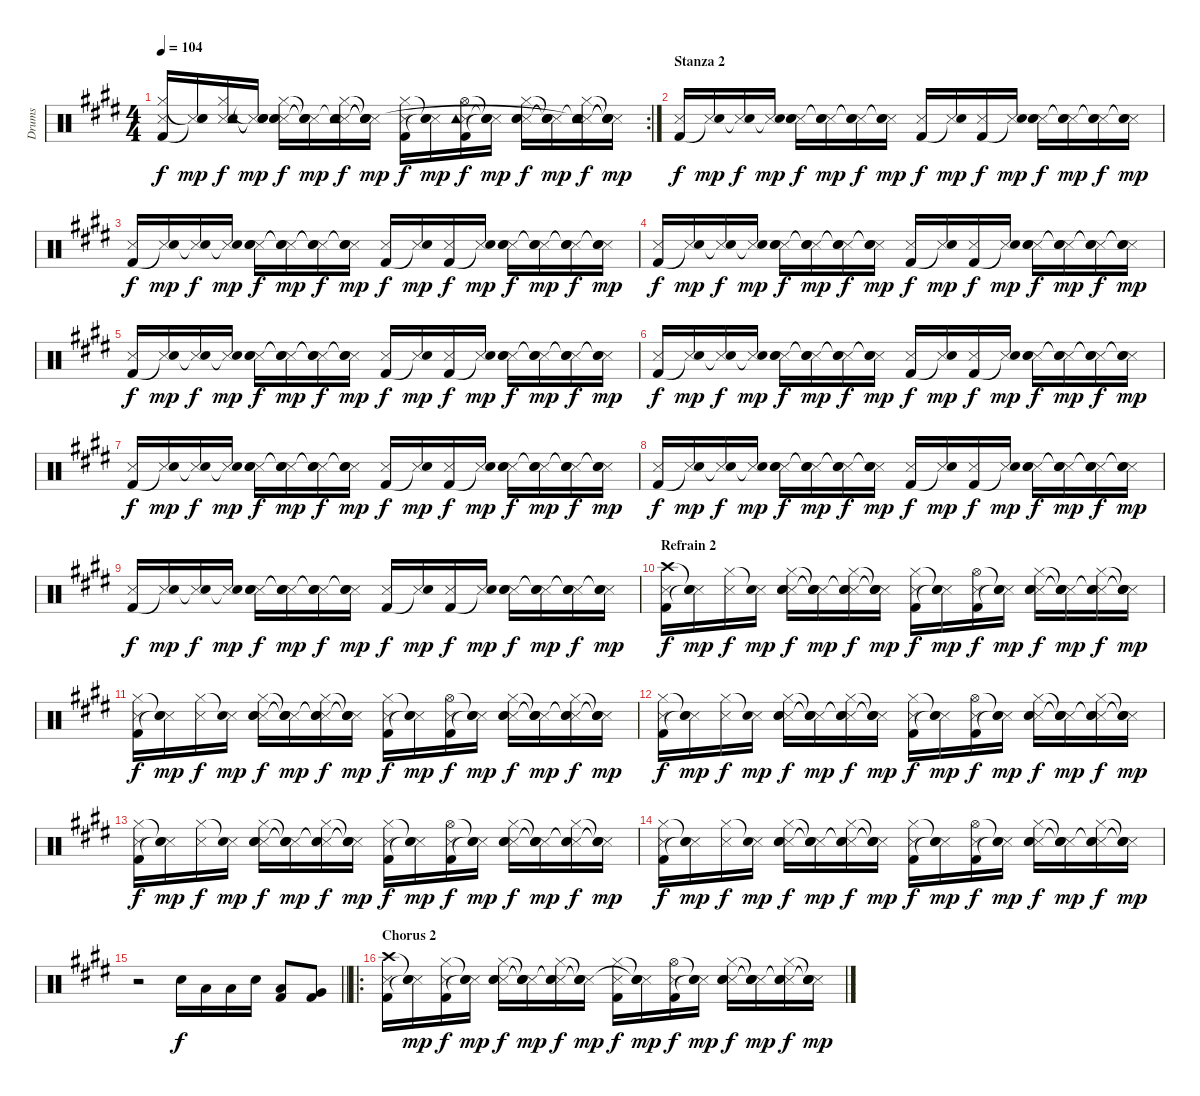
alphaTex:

\track ("Drums" "Drums") {instrument percussion}
\staff {score}
\articulation defaults
\rc 2
\ts (4 4)
\tempo 104
\clef neutral
\ks e
("Metronome (hit)" "Hi-Hat (closed)" "Kick (hit) 2").16{dy f} ("Metronome (hit)" "Snare (hit)"{t} "Snare (hit)"{t}).16{dy mp} ("Metronome (hit)" "Hi-Hat (closed)" "Tambourine (hit)" "Snare (hit)"{t}).16{dy f} ("Metronome (hit)" "Snare (hit)"{t} "Snare (hit)"{t} "Snare (hit)"{t}).16{dy mp} ("Metronome (hit)" "Hi-Hat (closed)" "Hand Clap (hit)" "Electric Snare (hit)").16{dy f} ("Metronome (hit)" "Snare (hit)"{t} "Snare (hit)"{t} "Snare (hit)"{t}).16{dy mp} ("Metronome (hit)" "Hi-Hat (closed)" "Tambourine (hit)" "Snare (hit)"{t} "Snare (hit)"{t}).16{dy f} ("Metronome (hit)" "Snare (hit)"{t} "Snare (hit)"{t} "Snare (hit)"{t} "Snare (hit)"{t}).16{dy mp} ("Metronome (hit)" "Hi-Hat (closed)" "Kick (hit) 2").16{dy f} ("Metronome (hit)" "Snare (hit)"{t} "Snare (hit)"{t}).16{dy mp} ("Metronome (hit)" "Hi-Hat (open)" "Tambourine (hit)" "Kick (hit) 2").16{dy f} ("Metronome (hit)" "Snare (hit)"{t} "Snare (hit)"{t} "Snare (hit)"{t}).16{dy mp} ("Metronome (hit)" "Hi-Hat (closed)" "Hand Clap (hit)" "Electric Snare (hit)").16{dy f} ("Metronome (hit)" "Snare (hit)"{t} "Snare (hit)"{t} "Snare (hit)"{t}).16{dy mp} ("Metronome (hit)" "Hi-Hat (closed)" "Tambourine (hit)" "Snare (hit)"{t} "Snare (hit)"{t}).16{dy f} ("Metronome (hit)" "Snare (hit)"{t} "Snare (hit)"{t} "Snare (hit)"{t} "Snare (hit)"{t}).16{dy mp} |
\section ("" "Stanza 2")
("Metronome (hit)" "Kick (hit) 2").16{dy f} ("Metronome (hit)" "Snare (hit)"{t}).16{dy mp} ("Metronome (hit)" "Snare (hit)"{t}).16{dy f} ("Metronome (hit)" "Snare (hit)"{t}).16{dy mp} ("Metronome (hit)" "Hand Clap (hit)" "Electric Snare (hit)").16{dy f} ("Metronome (hit)" "Snare (hit)"{t} "Snare (hit)"{t}).16{dy mp} ("Metronome (hit)" "Snare (hit)"{t} "Snare (hit)"{t}).16{dy f} ("Metronome (hit)" "Snare (hit)"{t} "Snare (hit)"{t}).16{dy mp} ("Metronome (hit)" "Kick (hit) 2").16{dy f} ("Metronome (hit)" "Snare (hit)"{t}).16{dy mp} ("Metronome (hit)" "Kick (hit) 2").16{dy f} ("Metronome (hit)" "Snare (hit)"{t}).16{dy mp} ("Metronome (hit)" "Hand Clap (hit)" "Electric Snare (hit)").16{dy f} ("Metronome (hit)" "Snare (hit)"{t} "Snare (hit)"{t}).16{dy mp} ("Metronome (hit)" "Snare (hit)"{t} "Snare (hit)"{t}).16{dy f} ("Metronome (hit)" "Snare (hit)"{t} "Snare (hit)"{t}).16{dy mp} |
("Metronome (hit)" "Kick (hit) 2").16{dy f} ("Metronome (hit)" "Snare (hit)"{t}).16{dy mp} ("Metronome (hit)" "Snare (hit)"{t}).16{dy f} ("Metronome (hit)" "Snare (hit)"{t}).16{dy mp} ("Metronome (hit)" "Hand Clap (hit)" "Electric Snare (hit)").16{dy f} ("Metronome (hit)" "Snare (hit)"{t} "Snare (hit)"{t}).16{dy mp} ("Metronome (hit)" "Snare (hit)"{t} "Snare (hit)"{t}).16{dy f} ("Metronome (hit)" "Snare (hit)"{t} "Snare (hit)"{t}).16{dy mp} ("Metronome (hit)" "Kick (hit) 2").16{dy f} ("Metronome (hit)" "Snare (hit)"{t}).16{dy mp} ("Metronome (hit)" "Kick (hit) 2").16{dy f} ("Metronome (hit)" "Snare (hit)"{t}).16{dy mp} ("Metronome (hit)" "Hand Clap (hit)" "Electric Snare (hit)").16{dy f} ("Metronome (hit)" "Snare (hit)"{t} "Snare (hit)"{t}).16{dy mp} ("Metronome (hit)" "Snare (hit)"{t} "Snare (hit)"{t}).16{dy f} ("Metronome (hit)" "Snare (hit)"{t} "Snare (hit)"{t}).16{dy mp} |
("Metronome (hit)" "Kick (hit) 2").16{dy f} ("Metronome (hit)" "Snare (hit)"{t}).16{dy mp} ("Metronome (hit)" "Snare (hit)"{t}).16{dy f} ("Metronome (hit)" "Snare (hit)"{t}).16{dy mp} ("Metronome (hit)" "Hand Clap (hit)" "Electric Snare (hit)").16{dy f} ("Metronome (hit)" "Snare (hit)"{t} "Snare (hit)"{t}).16{dy mp} ("Metronome (hit)" "Snare (hit)"{t} "Snare (hit)"{t}).16{dy f} ("Metronome (hit)" "Snare (hit)"{t} "Snare (hit)"{t}).16{dy mp} ("Metronome (hit)" "Kick (hit) 2").16{dy f} ("Metronome (hit)" "Snare (hit)"{t}).16{dy mp} ("Metronome (hit)" "Kick (hit) 2").16{dy f} ("Metronome (hit)" "Snare (hit)"{t}).16{dy mp} ("Metronome (hit)" "Hand Clap (hit)" "Electric Snare (hit)").16{dy f} ("Metronome (hit)" "Snare (hit)"{t} "Snare (hit)"{t}).16{dy mp} ("Metronome (hit)" "Snare (hit)"{t} "Snare (hit)"{t}).16{dy f} ("Metronome (hit)" "Snare (hit)"{t} "Snare (hit)"{t}).16{dy mp} |
("Metronome (hit)" "Kick (hit) 2").16{dy f} ("Metronome (hit)" "Snare (hit)"{t}).16{dy mp} ("Metronome (hit)" "Snare (hit)"{t}).16{dy f} ("Metronome (hit)" "Snare (hit)"{t}).16{dy mp} ("Metronome (hit)" "Hand Clap (hit)" "Electric Snare (hit)").16{dy f} ("Metronome (hit)" "Snare (hit)"{t} "Snare (hit)"{t}).16{dy mp} ("Metronome (hit)" "Snare (hit)"{t} "Snare (hit)"{t}).16{dy f} ("Metronome (hit)" "Snare (hit)"{t} "Snare (hit)"{t}).16{dy mp} ("Metronome (hit)" "Kick (hit) 2").16{dy f} ("Metronome (hit)" "Snare (hit)"{t}).16{dy mp} ("Metronome (hit)" "Kick (hit) 2").16{dy f} ("Metronome (hit)" "Snare (hit)"{t}).16{dy mp} ("Metronome (hit)" "Hand Clap (hit)" "Electric Snare (hit)").16{dy f} ("Metronome (hit)" "Snare (hit)"{t} "Snare (hit)"{t}).16{dy mp} ("Metronome (hit)" "Snare (hit)"{t} "Snare (hit)"{t}).16{dy f} ("Metronome (hit)" "Snare (hit)"{t} "Snare (hit)"{t}).16{dy mp} |
("Metronome (hit)" "Kick (hit) 2").16{dy f} ("Metronome (hit)" "Snare (hit)"{t}).16{dy mp} ("Metronome (hit)" "Snare (hit)"{t}).16{dy f} ("Metronome (hit)" "Snare (hit)"{t}).16{dy mp} ("Metronome (hit)" "Hand Clap (hit)" "Electric Snare (hit)").16{dy f} ("Metronome (hit)" "Snare (hit)"{t} "Snare (hit)"{t}).16{dy mp} ("Metronome (hit)" "Snare (hit)"{t} "Snare (hit)"{t}).16{dy f} ("Metronome (hit)" "Snare (hit)"{t} "Snare (hit)"{t}).16{dy mp} ("Metronome (hit)" "Kick (hit) 2").16{dy f} ("Metronome (hit)" "Snare (hit)"{t}).16{dy mp} ("Metronome (hit)" "Kick (hit) 2").16{dy f} ("Metronome (hit)" "Snare (hit)"{t}).16{dy mp} ("Metronome (hit)" "Hand Clap (hit)" "Electric Snare (hit)").16{dy f} ("Metronome (hit)" "Snare (hit)"{t} "Snare (hit)"{t}).16{dy mp} ("Metronome (hit)" "Snare (hit)"{t} "Snare (hit)"{t}).16{dy f} ("Metronome (hit)" "Snare (hit)"{t} "Snare (hit)"{t}).16{dy mp} |
("Metronome (hit)" "Kick (hit) 2").16{dy f} ("Metronome (hit)" "Snare (hit)"{t}).16{dy mp} ("Metronome (hit)" "Snare (hit)"{t}).16{dy f} ("Metronome (hit)" "Snare (hit)"{t}).16{dy mp} ("Metronome (hit)" "Hand Clap (hit)" "Electric Snare (hit)").16{dy f} ("Metronome (hit)" "Snare (hit)"{t} "Snare (hit)"{t}).16{dy mp} ("Metronome (hit)" "Snare (hit)"{t} "Snare (hit)"{t}).16{dy f} ("Metronome (hit)" "Snare (hit)"{t} "Snare (hit)"{t}).16{dy mp} ("Metronome (hit)" "Kick (hit) 2").16{dy f} ("Metronome (hit)" "Snare (hit)"{t}).16{dy mp} ("Metronome (hit)" "Kick (hit) 2").16{dy f} ("Metronome (hit)" "Snare (hit)"{t}).16{dy mp} ("Metronome (hit)" "Hand Clap (hit)" "Electric Snare (hit)").16{dy f} ("Metronome (hit)" "Snare (hit)"{t} "Snare (hit)"{t}).16{dy mp} ("Metronome (hit)" "Snare (hit)"{t} "Snare (hit)"{t}).16{dy f} ("Metronome (hit)" "Snare (hit)"{t} "Snare (hit)"{t}).16{dy mp} |
("Metronome (hit)" "Kick (hit) 2").16{dy f} ("Metronome (hit)" "Snare (hit)"{t}).16{dy mp} ("Metronome (hit)" "Snare (hit)"{t}).16{dy f} ("Metronome (hit)" "Snare (hit)"{t}).16{dy mp} ("Metronome (hit)" "Hand Clap (hit)" "Electric Snare (hit)").16{dy f} ("Metronome (hit)" "Snare (hit)"{t} "Snare (hit)"{t}).16{dy mp} ("Metronome (hit)" "Snare (hit)"{t} "Snare (hit)"{t}).16{dy f} ("Metronome (hit)" "Snare (hit)"{t} "Snare (hit)"{t}).16{dy mp} ("Metronome (hit)" "Kick (hit) 2").16{dy f} ("Metronome (hit)" "Snare (hit)"{t}).16{dy mp} ("Metronome (hit)" "Kick (hit) 2").16{dy f} ("Metronome (hit)" "Snare (hit)"{t}).16{dy mp} ("Metronome (hit)" "Hand Clap (hit)" "Electric Snare (hit)").16{dy f} ("Metronome (hit)" "Snare (hit)"{t} "Snare (hit)"{t}).16{dy mp} ("Metronome (hit)" "Snare (hit)"{t} "Snare (hit)"{t}).16{dy f} ("Metronome (hit)" "Snare (hit)"{t} "Snare (hit)"{t}).16{dy mp} |
("Metronome (hit)" "Kick (hit) 2").16{dy f} ("Metronome (hit)" "Snare (hit)"{t}).16{dy mp} ("Metronome (hit)" "Snare (hit)"{t}).16{dy f} ("Metronome (hit)" "Snare (hit)"{t}).16{dy mp} ("Metronome (hit)" "Hand Clap (hit)" "Electric Snare (hit)").16{dy f} ("Metronome (hit)" "Snare (hit)"{t} "Snare (hit)"{t}).16{dy mp} ("Metronome (hit)" "Snare (hit)"{t} "Snare (hit)"{t}).16{dy f} ("Metronome (hit)" "Snare (hit)"{t} "Snare (hit)"{t}).16{dy mp} ("Metronome (hit)" "Kick (hit) 2").16{dy f} ("Metronome (hit)" "Snare (hit)"{t}).16{dy mp} ("Metronome (hit)" "Kick (hit) 2").16{dy f} ("Metronome (hit)" "Snare (hit)"{t}).16{dy mp} ("Metronome (hit)" "Hand Clap (hit)" "Electric Snare (hit)").16{dy f} ("Metronome (hit)" "Snare (hit)"{t} "Snare (hit)"{t}).16{dy mp} ("Metronome (hit)" "Snare (hit)"{t} "Snare (hit)"{t}).16{dy f} ("Metronome (hit)" "Snare (hit)"{t} "Snare (hit)"{t}).16{dy mp} |
\section ("" "Refrain 2")
("Metronome (hit)" "Crash high (hit)" "Kick (hit) 2").16{dy f} ("Metronome (hit)" "Snare (hit)"{t} "Snare (hit)"{t}).16{dy mp} ("Metronome (hit)" "Hi-Hat (closed)").16{dy f} ("Metronome (hit)" "Snare (hit)"{t}).16{dy mp} ("Metronome (hit)" "Hi-Hat (closed)" "Hand Clap (hit)" "Electric Snare (hit)").16{dy f} ("Metronome (hit)" "Snare (hit)"{t} "Snare (hit)"{t} "Snare (hit)"{t}).16{dy mp} ("Metronome (hit)" "Hi-Hat (closed)" "Snare (hit)"{t} "Snare (hit)"{t}).16{dy f} ("Metronome (hit)" "Snare (hit)"{t} "Snare (hit)"{t} "Electric Snare (hit)"{t}).16{dy mp} ("Metronome (hit)" "Hi-Hat (closed)" "Kick (hit) 2").16{dy f} ("Metronome (hit)" "Snare (hit)"{t} "Snare (hit)"{t}).16{dy mp} ("Metronome (hit)" "Hi-Hat (open)" "Kick (hit) 2").16{dy f} ("Metronome (hit)" "Snare (hit)"{t} "Snare (hit)"{t}).16{dy mp} ("Metronome (hit)" "Hi-Hat (closed)" "Hand Clap (hit)" "Electric Snare (hit)").16{dy f} ("Metronome (hit)" "Snare (hit)"{t} "Snare (hit)"{t} "Snare (hit)"{t}).16{dy mp} ("Metronome (hit)" "Hi-Hat (closed)" "Snare (hit)"{t} "Snare (hit)"{t}).16{dy f} ("Metronome (hit)" "Snare (hit)"{t} "Snare (hit)"{t} "Snare (hit)"{t}).16{dy mp} |
("Metronome (hit)" "Hi-Hat (closed)" "Kick (hit) 2").16{dy f} ("Metronome (hit)" "Snare (hit)"{t} "Snare (hit)"{t}).16{dy mp} ("Metronome (hit)" "Hi-Hat (closed)").16{dy f} ("Metronome (hit)" "Snare (hit)"{t}).16{dy mp} ("Metronome (hit)" "Hi-Hat (closed)" "Hand Clap (hit)" "Electric Snare (hit)").16{dy f} ("Metronome (hit)" "Snare (hit)"{t} "Snare (hit)"{t} "Snare (hit)"{t}).16{dy mp} ("Metronome (hit)" "Hi-Hat (closed)" "Snare (hit)"{t} "Snare (hit)"{t}).16{dy f} ("Metronome (hit)" "Snare (hit)"{t} "Snare (hit)"{t} "Electric Snare (hit)"{t}).16{dy mp} ("Metronome (hit)" "Hi-Hat (closed)" "Kick (hit) 2").16{dy f} ("Metronome (hit)" "Snare (hit)"{t} "Snare (hit)"{t}).16{dy mp} ("Metronome (hit)" "Hi-Hat (open)" "Kick (hit) 2").16{dy f} ("Metronome (hit)" "Snare (hit)"{t} "Snare (hit)"{t}).16{dy mp} ("Metronome (hit)" "Hi-Hat (closed)" "Hand Clap (hit)" "Electric Snare (hit)").16{dy f} ("Metronome (hit)" "Snare (hit)"{t} "Snare (hit)"{t} "Snare (hit)"{t}).16{dy mp} ("Metronome (hit)" "Hi-Hat (closed)" "Snare (hit)"{t} "Snare (hit)"{t}).16{dy f} ("Metronome (hit)" "Snare (hit)"{t} "Snare (hit)"{t} "Snare (hit)"{t}).16{dy mp} |
("Metronome (hit)" "Hi-Hat (closed)" "Kick (hit) 2").16{dy f} ("Metronome (hit)" "Snare (hit)"{t} "Snare (hit)"{t}).16{dy mp} ("Metronome (hit)" "Hi-Hat (closed)").16{dy f} ("Metronome (hit)" "Snare (hit)"{t}).16{dy mp} ("Metronome (hit)" "Hi-Hat (closed)" "Hand Clap (hit)" "Electric Snare (hit)").16{dy f} ("Metronome (hit)" "Snare (hit)"{t} "Snare (hit)"{t} "Snare (hit)"{t}).16{dy mp} ("Metronome (hit)" "Hi-Hat (closed)" "Snare (hit)"{t} "Snare (hit)"{t}).16{dy f} ("Metronome (hit)" "Snare (hit)"{t} "Snare (hit)"{t} "Electric Snare (hit)"{t}).16{dy mp} ("Metronome (hit)" "Hi-Hat (closed)" "Kick (hit) 2").16{dy f} ("Metronome (hit)" "Snare (hit)"{t} "Snare (hit)"{t}).16{dy mp} ("Metronome (hit)" "Hi-Hat (open)" "Kick (hit) 2").16{dy f} ("Metronome (hit)" "Snare (hit)"{t} "Snare (hit)"{t}).16{dy mp} ("Metronome (hit)" "Hi-Hat (closed)" "Hand Clap (hit)" "Electric Snare (hit)").16{dy f} ("Metronome (hit)" "Snare (hit)"{t} "Snare (hit)"{t} "Snare (hit)"{t}).16{dy mp} ("Metronome (hit)" "Hi-Hat (closed)" "Snare (hit)"{t} "Snare (hit)"{t}).16{dy f} ("Metronome (hit)" "Snare (hit)"{t} "Snare (hit)"{t} "Snare (hit)"{t}).16{dy mp} |
("Metronome (hit)" "Hi-Hat (closed)" "Kick (hit) 2").16{dy f} ("Metronome (hit)" "Snare (hit)"{t} "Snare (hit)"{t}).16{dy mp} ("Metronome (hit)" "Hi-Hat (closed)").16{dy f} ("Metronome (hit)" "Snare (hit)"{t}).16{dy mp} ("Metronome (hit)" "Hi-Hat (closed)" "Hand Clap (hit)" "Electric Snare (hit)").16{dy f} ("Metronome (hit)" "Snare (hit)"{t} "Snare (hit)"{t} "Snare (hit)"{t}).16{dy mp} ("Metronome (hit)" "Hi-Hat (closed)" "Snare (hit)"{t} "Snare (hit)"{t}).16{dy f} ("Metronome (hit)" "Snare (hit)"{t} "Snare (hit)"{t} "Electric Snare (hit)"{t}).16{dy mp} ("Metronome (hit)" "Hi-Hat (closed)" "Kick (hit) 2").16{dy f} ("Metronome (hit)" "Snare (hit)"{t} "Snare (hit)"{t}).16{dy mp} ("Metronome (hit)" "Hi-Hat (open)" "Kick (hit) 2").16{dy f} ("Metronome (hit)" "Snare (hit)"{t} "Snare (hit)"{t}).16{dy mp} ("Metronome (hit)" "Hi-Hat (closed)" "Hand Clap (hit)" "Electric Snare (hit)").16{dy f} ("Metronome (hit)" "Snare (hit)"{t} "Snare (hit)"{t} "Snare (hit)"{t}).16{dy mp} ("Metronome (hit)" "Hi-Hat (closed)" "Snare (hit)"{t} "Snare (hit)"{t}).16{dy f} ("Metronome (hit)" "Snare (hit)"{t} "Snare (hit)"{t} "Snare (hit)"{t}).16{dy mp} |
("Metronome (hit)" "Hi-Hat (closed)" "Kick (hit) 2").16{dy f} ("Metronome (hit)" "Snare (hit)"{t} "Snare (hit)"{t}).16{dy mp} ("Metronome (hit)" "Hi-Hat (closed)").16{dy f} ("Metronome (hit)" "Snare (hit)"{t}).16{dy mp} ("Metronome (hit)" "Hi-Hat (closed)" "Hand Clap (hit)" "Electric Snare (hit)").16{dy f} ("Metronome (hit)" "Snare (hit)"{t} "Snare (hit)"{t} "Snare (hit)"{t}).16{dy mp} ("Metronome (hit)" "Hi-Hat (closed)" "Snare (hit)"{t} "Snare (hit)"{t}).16{dy f} ("Metronome (hit)" "Snare (hit)"{t} "Snare (hit)"{t} "Electric Snare (hit)"{t}).16{dy mp} ("Metronome (hit)" "Hi-Hat (closed)" "Kick (hit) 2").16{dy f} ("Metronome (hit)" "Snare (hit)"{t} "Snare (hit)"{t}).16{dy mp} ("Metronome (hit)" "Hi-Hat (open)" "Kick (hit) 2").16{dy f} ("Metronome (hit)" "Snare (hit)"{t} "Snare (hit)"{t}).16{dy mp} ("Metronome (hit)" "Hi-Hat (closed)" "Hand Clap (hit)" "Electric Snare (hit)").16{dy f} ("Metronome (hit)" "Snare (hit)"{t} "Snare (hit)"{t} "Snare (hit)"{t}).16{dy mp} ("Metronome (hit)" "Hi-Hat (closed)" "Snare (hit)"{t} "Snare (hit)"{t}).16{dy f} ("Metronome (hit)" "Snare (hit)"{t} "Snare (hit)"{t} "Snare (hit)"{t}).16{dy mp} |
\barLineRight lightlight
r.2 "Electric Snare (hit)".16{dy f} "Low Tom (hit)".16 "Low Tom (hit)".16 "Electric Snare (hit)".16 ("Low Tom (hit)" "Kick (hit) 2").8 ("Very Low Tom (hit)" "Kick (hit) 2").8 |
\ro
\section ("" "Chorus 2")
("Metronome (hit)" "Crash high (hit)" "Kick (hit) 2").16 ("Metronome (hit)" "Snare (hit)"{t} "Snare (hit)"{t}).16{dy mp} ("Metronome (hit)" "Hi-Hat (closed)" "Kick (hit) 2").16{dy f} ("Metronome (hit)" "Snare (hit)"{t} "Snare (hit)"{t}).16{dy mp} ("Metronome (hit)" "Hi-Hat (closed)" "Hand Clap (hit)" "Electric Snare (hit)").16{dy f} ("Metronome (hit)" "Snare (hit)"{t} "Snare (hit)"{t} "Snare (hit)"{t}).16{dy mp} ("Metronome (hit)" "Hi-Hat (closed)" "Snare (hit)"{t} "Snare (hit)"{t}).16{dy f} ("Metronome (hit)" "Snare (hit)"{t} "Snare (hit)"{t} "Electric Snare (hit)"{t}).16{dy mp} ("Metronome (hit)" "Hi-Hat (closed)" "Kick (hit) 2").16{dy f} ("Metronome (hit)" "Snare (hit)"{t} "Electric Snare (hit)" "Snare (hit)"{t}).16{dy mp} ("Metronome (hit)" "Hi-Hat (open)" "Kick (hit) 2").16{dy f} ("Metronome (hit)" "Snare (hit)"{t} "Snare (hit)"{t}).16{dy mp} ("Metronome (hit)" "Hi-Hat (closed)" "Hand Clap (hit)" "Electric Snare (hit)").16{dy f} ("Metronome (hit)" "Snare (hit)"{t} "Snare (hit)"{t} "Snare (hit)"{t}).16{dy mp} ("Metronome (hit)" "Hi-Hat (closed)" "Snare (hit)"{t} "Snare (hit)"{t}).16{dy f} ("Metronome (hit)" "Snare (hit)"{t} "Snare (hit)"{t} "Snare (hit)"{t}).16{dy mp}
